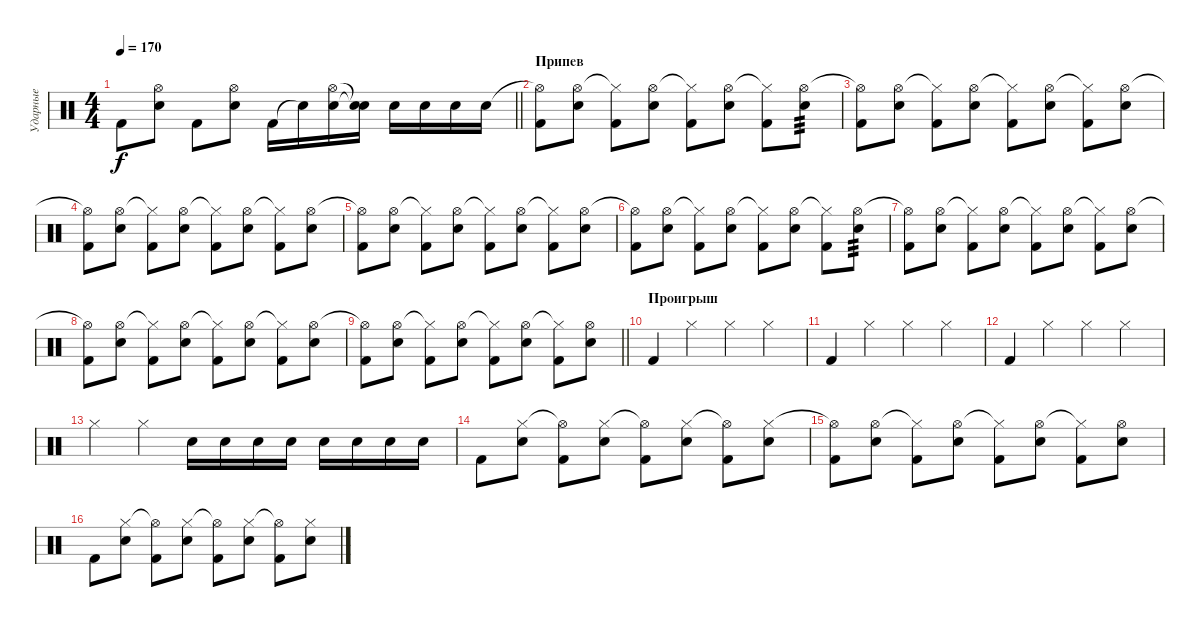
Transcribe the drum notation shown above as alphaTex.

\track ("Ударные" "Ударные") {instrument percussion}
\staff {score}
\articulation defaults
\ts (4 4)
\tempo 170
\clef neutral
\barLineRight lightlight
\ks c "Kick (hit) 2".8{dy f}
("Hi-Hat (open)" "Electric Snare (hit)").8 "Kick (hit) 2".8 ("Hi-Hat (open)" "Electric Snare (hit)").8 "Kick (hit) 2".16 "Electric Snare (hit)"{t}.16 ("Electric Snare (hit)" "Hi-Hat (open)").16 ("Electric Snare (hit)"{t} "Snare (hit)"{t}).16 "Electric Snare (hit)".16 "Electric Snare (hit)".16 "Electric Snare (hit)".16 "Electric Snare (hit)".16 |
\section ("" "Припев")
("Hi-Hat (open)"{t} "Kick (hit) 2").8 ("Hi-Hat (open)" "Electric Snare (hit)").8 ("Hi-Hat (closed)"{t} "Kick (hit) 2").8 ("Hi-Hat (open)" "Electric Snare (hit)").8 ("Hi-Hat (closed)"{t} "Kick (hit) 2").8 ("Hi-Hat (open)" "Electric Snare (hit)").8 ("Hi-Hat (closed)"{t} "Kick (hit) 2").8 ("Hi-Hat (open)" "Electric Snare (hit)").8{tp 3} |
("Hi-Hat (open)"{t} "Kick (hit) 2").8 ("Hi-Hat (open)" "Electric Snare (hit)").8 ("Hi-Hat (closed)"{t} "Kick (hit) 2").8 ("Hi-Hat (open)" "Electric Snare (hit)").8 ("Hi-Hat (closed)"{t} "Kick (hit) 2").8 ("Hi-Hat (open)" "Electric Snare (hit)").8 ("Hi-Hat (closed)"{t} "Kick (hit) 2").8 ("Hi-Hat (open)" "Electric Snare (hit)").8 |
("Hi-Hat (open)"{t} "Kick (hit) 2").8 ("Hi-Hat (open)" "Electric Snare (hit)").8 ("Hi-Hat (closed)"{t} "Kick (hit) 2").8 ("Hi-Hat (open)" "Electric Snare (hit)").8 ("Hi-Hat (closed)"{t} "Kick (hit) 2").8 ("Hi-Hat (open)" "Electric Snare (hit)").8 ("Hi-Hat (closed)"{t} "Kick (hit) 2").8 ("Hi-Hat (open)" "Electric Snare (hit)").8 |
("Hi-Hat (open)"{t} "Kick (hit) 2").8 ("Hi-Hat (open)" "Electric Snare (hit)").8 ("Hi-Hat (closed)"{t} "Kick (hit) 2").8 ("Hi-Hat (open)" "Electric Snare (hit)").8 ("Hi-Hat (closed)"{t} "Kick (hit) 2").8 ("Hi-Hat (open)" "Electric Snare (hit)").8 ("Hi-Hat (closed)"{t} "Kick (hit) 2").8 ("Hi-Hat (open)" "Electric Snare (hit)").8 |
("Hi-Hat (open)"{t} "Kick (hit) 2").8 ("Hi-Hat (open)" "Electric Snare (hit)").8 ("Hi-Hat (closed)"{t} "Kick (hit) 2").8 ("Hi-Hat (open)" "Electric Snare (hit)").8 ("Hi-Hat (closed)"{t} "Kick (hit) 2").8 ("Hi-Hat (open)" "Electric Snare (hit)").8 ("Hi-Hat (closed)"{t} "Kick (hit) 2").8 ("Hi-Hat (open)" "Electric Snare (hit)").8{tp 3} |
("Hi-Hat (open)"{t} "Kick (hit) 2").8 ("Hi-Hat (open)" "Electric Snare (hit)").8 ("Hi-Hat (closed)"{t} "Kick (hit) 2").8 ("Hi-Hat (open)" "Electric Snare (hit)").8 ("Hi-Hat (closed)"{t} "Kick (hit) 2").8 ("Hi-Hat (open)" "Electric Snare (hit)").8 ("Hi-Hat (closed)"{t} "Kick (hit) 2").8 ("Hi-Hat (open)" "Electric Snare (hit)").8 |
("Hi-Hat (open)"{t} "Kick (hit) 2").8 ("Hi-Hat (open)" "Electric Snare (hit)").8 ("Hi-Hat (closed)"{t} "Kick (hit) 2").8 ("Hi-Hat (open)" "Electric Snare (hit)").8 ("Hi-Hat (closed)"{t} "Kick (hit) 2").8 ("Hi-Hat (open)" "Electric Snare (hit)").8 ("Hi-Hat (closed)"{t} "Kick (hit) 2").8 ("Hi-Hat (open)" "Electric Snare (hit)").8 |
\barLineRight lightlight
("Hi-Hat (open)"{t} "Kick (hit) 2").8 ("Hi-Hat (open)" "Electric Snare (hit)").8 ("Hi-Hat (closed)"{t} "Kick (hit) 2").8 ("Hi-Hat (open)" "Electric Snare (hit)").8 ("Hi-Hat (closed)"{t} "Kick (hit) 2").8 ("Hi-Hat (open)" "Electric Snare (hit)").8 ("Hi-Hat (closed)"{t} "Kick (hit) 2").8 ("Hi-Hat (open)" "Electric Snare (hit)").8 |
\section ("" "Проигрыш")
"Kick (hit) 2".4 "Hi-Hat (closed)".4 "Hi-Hat (closed)".4 "Hi-Hat (closed)".4 |
"Kick (hit) 2".4 "Hi-Hat (closed)".4 "Hi-Hat (closed)".4 "Hi-Hat (closed)".4 |
"Kick (hit) 2".4 "Hi-Hat (closed)".4 "Hi-Hat (closed)".4 "Hi-Hat (closed)".4 |
"Hi-Hat (closed)".4 "Hi-Hat (closed)".4 "Electric Snare (hit)".16 "Electric Snare (hit)".16 "Electric Snare (hit)".16 "Electric Snare (hit)".16 "Electric Snare (hit)".16 "Electric Snare (hit)".16 "Electric Snare (hit)".16 "Electric Snare (hit)".16 |
"Kick (hit) 2".8 ("Hi-Hat (closed)" "Electric Snare (hit)").8 ("Hi-Hat (open)"{t} "Kick (hit) 2").8 ("Hi-Hat (closed)" "Electric Snare (hit)").8 ("Hi-Hat (open)"{t} "Kick (hit) 2").8 ("Hi-Hat (closed)" "Electric Snare (hit)").8 ("Hi-Hat (open)"{t} "Kick (hit) 2").8 ("Hi-Hat (closed)" "Electric Snare (hit)").8 |
("Hi-Hat (open)"{t} "Kick (hit) 2").8 ("Hi-Hat (open)" "Electric Snare (hit)").8 ("Hi-Hat (closed)"{t} "Kick (hit) 2").8 ("Hi-Hat (open)" "Electric Snare (hit)").8 ("Hi-Hat (closed)"{t} "Kick (hit) 2").8 ("Hi-Hat (open)" "Electric Snare (hit)").8 ("Hi-Hat (closed)"{t} "Kick (hit) 2").8 ("Hi-Hat (open)" "Electric Snare (hit)").8 |
"Kick (hit) 2".8 ("Hi-Hat (closed)" "Electric Snare (hit)").8 ("Hi-Hat (open)"{t} "Kick (hit) 2").8 ("Hi-Hat (closed)" "Electric Snare (hit)").8 ("Hi-Hat (open)"{t} "Kick (hit) 2").8 ("Hi-Hat (closed)" "Electric Snare (hit)").8 ("Hi-Hat (open)"{t} "Kick (hit) 2").8 ("Hi-Hat (closed)" "Electric Snare (hit)").8
